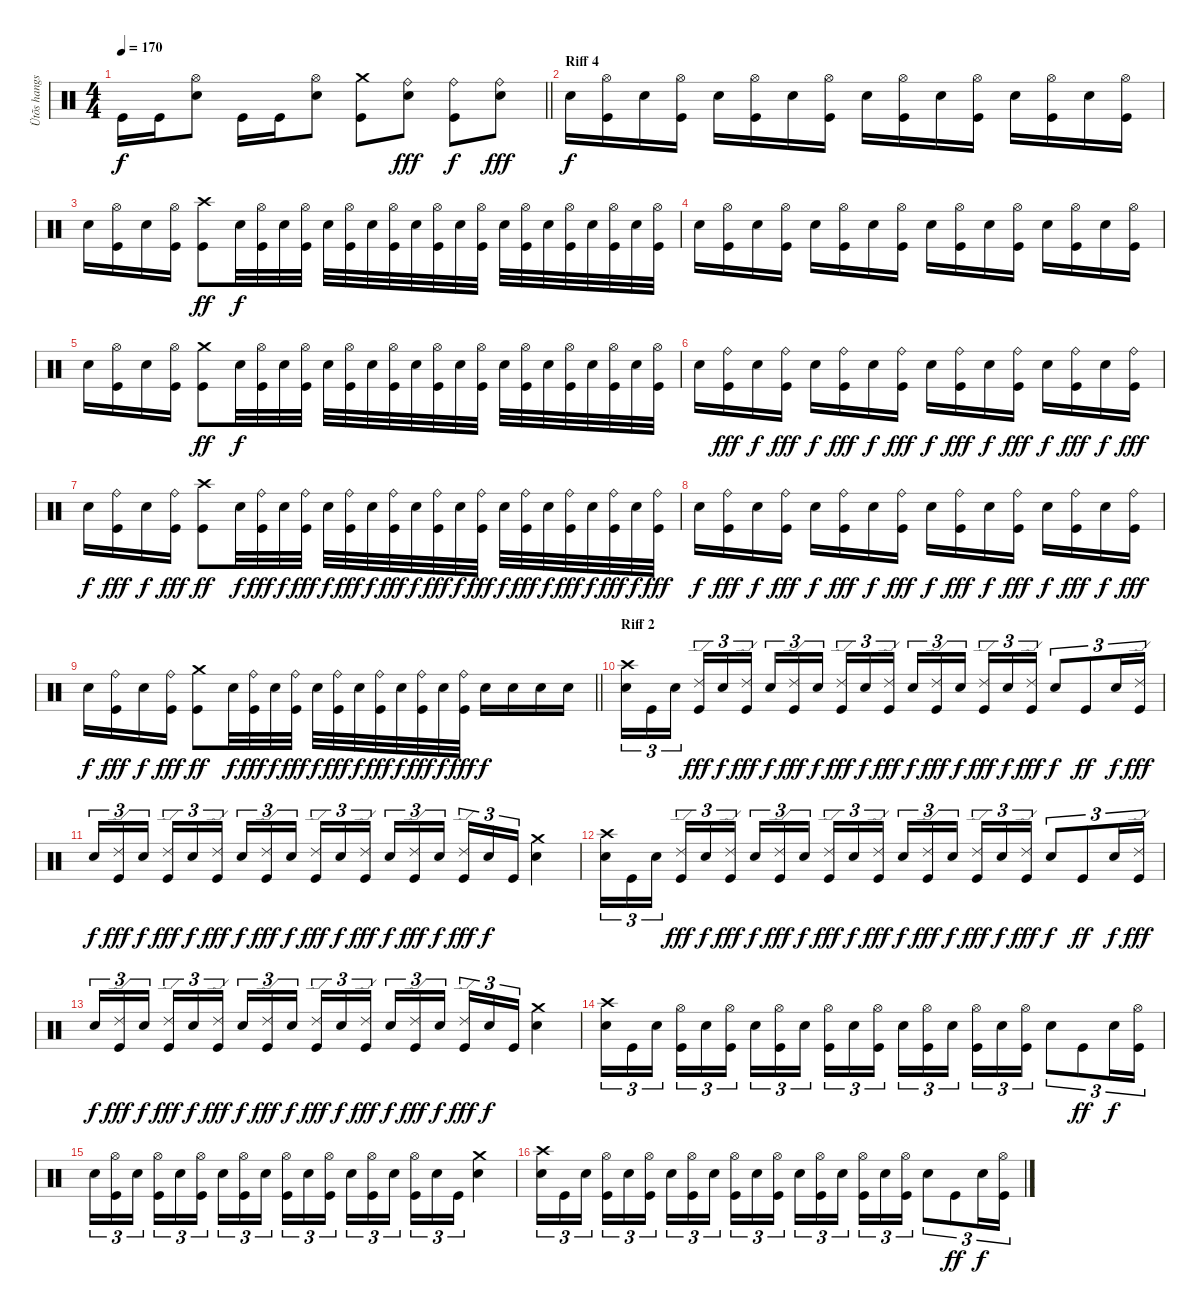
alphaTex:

\track ("Ütõs hangszer" "Ütõs hangs") {instrument percussion}
\staff {score}
\articulation defaults
\ts (4 4)
\tempo 170
\clef neutral
\barLineRight lightlight
\ks c "Kick (hit)".16{dy f} "Kick (hit)".16
("Hi-Hat (open)" "Electric Snare (hit)").8 "Kick (hit)".16 "Kick (hit)".16 ("Hi-Hat (open)" "Electric Snare (hit)").8 ("Crash medium (hit)" "Kick (hit)").8 ("Ride (bell)" "Electric Snare (hit)").8{dy fff} ("Ride (bell)" "Kick (hit)").8{dy f} ("Ride (bell)" "Electric Snare (hit)").8{dy fff} |
\section ("" "Riff 4")
"Electric Snare (hit)".16{dy f} ("Hi-Hat (open)" "Kick (hit)").16 "Electric Snare (hit)".16 ("Hi-Hat (open)" "Kick (hit)").16 "Electric Snare (hit)".16 ("Hi-Hat (open)" "Kick (hit)").16 "Electric Snare (hit)".16 ("Hi-Hat (open)" "Kick (hit)").16 "Electric Snare (hit)".16 ("Hi-Hat (open)" "Kick (hit)").16 "Electric Snare (hit)".16 ("Hi-Hat (open)" "Kick (hit)").16 "Electric Snare (hit)".16 ("Hi-Hat (open)" "Kick (hit)").16 "Electric Snare (hit)".16 ("Hi-Hat (open)" "Kick (hit)").16 |
"Electric Snare (hit)".16 ("Hi-Hat (open)" "Kick (hit)").16 "Electric Snare (hit)".16 ("Hi-Hat (open)" "Kick (hit)").16 ("Crash high (hit)" "Kick (hit)").8{dy ff} "Electric Snare (hit)".32{dy f} ("Hi-Hat (open)" "Kick (hit)").32 "Electric Snare (hit)".32 ("Hi-Hat (open)" "Kick (hit)").32 "Electric Snare (hit)".32 ("Hi-Hat (open)" "Kick (hit)").32 "Electric Snare (hit)".32 ("Hi-Hat (open)" "Kick (hit)").32 "Electric Snare (hit)".32 ("Hi-Hat (open)" "Kick (hit)").32 "Electric Snare (hit)".32 ("Hi-Hat (open)" "Kick (hit)").32 "Electric Snare (hit)".32 ("Hi-Hat (open)" "Kick (hit)").32 "Electric Snare (hit)".32 ("Hi-Hat (open)" "Kick (hit)").32 "Electric Snare (hit)".32 ("Hi-Hat (open)" "Kick (hit)").32 "Electric Snare (hit)".32 ("Hi-Hat (open)" "Kick (hit)").32 |
"Electric Snare (hit)".16 ("Hi-Hat (open)" "Kick (hit)").16 "Electric Snare (hit)".16 ("Hi-Hat (open)" "Kick (hit)").16 "Electric Snare (hit)".16 ("Hi-Hat (open)" "Kick (hit)").16 "Electric Snare (hit)".16 ("Hi-Hat (open)" "Kick (hit)").16 "Electric Snare (hit)".16 ("Hi-Hat (open)" "Kick (hit)").16 "Electric Snare (hit)".16 ("Hi-Hat (open)" "Kick (hit)").16 "Electric Snare (hit)".16 ("Hi-Hat (open)" "Kick (hit)").16 "Electric Snare (hit)".16 ("Hi-Hat (open)" "Kick (hit)").16 |
"Electric Snare (hit)".16 ("Hi-Hat (open)" "Kick (hit)").16 "Electric Snare (hit)".16 ("Hi-Hat (open)" "Kick (hit)").16 ("Crash medium (hit)" "Kick (hit)").8{dy ff} "Electric Snare (hit)".32{dy f} ("Hi-Hat (open)" "Kick (hit)").32 "Electric Snare (hit)".32 ("Hi-Hat (open)" "Kick (hit)").32 "Electric Snare (hit)".32 ("Hi-Hat (open)" "Kick (hit)").32 "Electric Snare (hit)".32 ("Hi-Hat (open)" "Kick (hit)").32 "Electric Snare (hit)".32 ("Hi-Hat (open)" "Kick (hit)").32 "Electric Snare (hit)".32 ("Hi-Hat (open)" "Kick (hit)").32 "Electric Snare (hit)".32 ("Hi-Hat (open)" "Kick (hit)").32 "Electric Snare (hit)".32 ("Hi-Hat (open)" "Kick (hit)").32 "Electric Snare (hit)".32 ("Hi-Hat (open)" "Kick (hit)").32 "Electric Snare (hit)".32 ("Hi-Hat (open)" "Kick (hit)").32 |
"Electric Snare (hit)".16 ("Ride (bell)" "Kick (hit)").16{dy fff} "Electric Snare (hit)".16{dy f} ("Ride (bell)" "Kick (hit)").16{dy fff} "Electric Snare (hit)".16{dy f} ("Ride (bell)" "Kick (hit)").16{dy fff} "Electric Snare (hit)".16{dy f} ("Ride (bell)" "Kick (hit)").16{dy fff} "Electric Snare (hit)".16{dy f} ("Ride (bell)" "Kick (hit)").16{dy fff} "Electric Snare (hit)".16{dy f} ("Ride (bell)" "Kick (hit)").16{dy fff} "Electric Snare (hit)".16{dy f} ("Ride (bell)" "Kick (hit)").16{dy fff} "Electric Snare (hit)".16{dy f} ("Ride (bell)" "Kick (hit)").16{dy fff} |
"Electric Snare (hit)".16{dy f} ("Ride (bell)" "Kick (hit)").16{dy fff} "Electric Snare (hit)".16{dy f} ("Ride (bell)" "Kick (hit)").16{dy fff} ("Crash high (hit)" "Kick (hit)").8{dy ff} "Electric Snare (hit)".32{dy f} ("Ride (bell)" "Kick (hit)").32{dy fff} "Electric Snare (hit)".32{dy f} ("Ride (bell)" "Kick (hit)").32{dy fff} "Electric Snare (hit)".32{dy f} ("Ride (bell)" "Kick (hit)").32{dy fff} "Electric Snare (hit)".32{dy f} ("Ride (bell)" "Kick (hit)").32{dy fff} "Electric Snare (hit)".32{dy f} ("Ride (bell)" "Kick (hit)").32{dy fff} "Electric Snare (hit)".32{dy f} ("Ride (bell)" "Kick (hit)").32{dy fff} "Electric Snare (hit)".32{dy f} ("Ride (bell)" "Kick (hit)").32{dy fff} "Electric Snare (hit)".32{dy f} ("Ride (bell)" "Kick (hit)").32{dy fff} "Electric Snare (hit)".32{dy f} ("Ride (bell)" "Kick (hit)").32{dy fff} "Electric Snare (hit)".32{dy f} ("Ride (bell)" "Kick (hit)").32{dy fff} |
"Electric Snare (hit)".16{dy f} ("Ride (bell)" "Kick (hit)").16{dy fff} "Electric Snare (hit)".16{dy f} ("Ride (bell)" "Kick (hit)").16{dy fff} "Electric Snare (hit)".16{dy f} ("Ride (bell)" "Kick (hit)").16{dy fff} "Electric Snare (hit)".16{dy f} ("Ride (bell)" "Kick (hit)").16{dy fff} "Electric Snare (hit)".16{dy f} ("Ride (bell)" "Kick (hit)").16{dy fff} "Electric Snare (hit)".16{dy f} ("Ride (bell)" "Kick (hit)").16{dy fff} "Electric Snare (hit)".16{dy f} ("Ride (bell)" "Kick (hit)").16{dy fff} "Electric Snare (hit)".16{dy f} ("Ride (bell)" "Kick (hit)").16{dy fff} |
\barLineRight lightlight "Electric Snare (hit)".16{dy f}
("Ride (bell)" "Kick (hit)").16{dy fff} "Electric Snare (hit)".16{dy f} ("Ride (bell)" "Kick (hit)").16{dy fff} ("Crash medium (hit)" "Kick (hit)").8{dy ff} "Electric Snare (hit)".32{dy f} ("Ride (bell)" "Kick (hit)").32{dy fff} "Electric Snare (hit)".32{dy f} ("Ride (bell)" "Kick (hit)").32{dy fff} "Electric Snare (hit)".32{dy f} ("Ride (bell)" "Kick (hit)").32{dy fff} "Electric Snare (hit)".32{dy f} ("Ride (bell)" "Kick (hit)").32{dy fff} "Electric Snare (hit)".32{dy f} ("Ride (bell)" "Kick (hit)").32{dy fff} "Electric Snare (hit)".32{dy f} ("Ride (bell)" "Kick (hit)").32{dy fff} "Electric Snare (hit)".16{dy f} "Electric Snare (hit)".16 "Electric Snare (hit)".16 "Electric Snare (hit)".16 |
\section ("" "Riff 2")
("Crash high (hit)" "Electric Snare (hit)").16{tu (3 2)} "Kick (hit)".16{tu (3 2)} "Electric Snare (hit)".16{tu (3 2) beam splitsecondary} ("Ride (edge) 2" "Kick (hit)").16{tu (3 2) dy fff} "Electric Snare (hit)".16{tu (3 2) dy f} ("Ride (edge) 2" "Kick (hit)").16{tu (3 2) dy fff} "Electric Snare (hit)".16{tu (3 2) dy f} ("Ride (edge) 2" "Kick (hit)").16{tu (3 2) dy fff} "Electric Snare (hit)".16{tu (3 2) dy f beam splitsecondary} ("Ride (edge) 2" "Kick (hit)").16{tu (3 2) dy fff} "Electric Snare (hit)".16{tu (3 2) dy f} ("Ride (edge) 2" "Kick (hit)").16{tu (3 2) dy fff} "Electric Snare (hit)".16{tu (3 2) dy f} ("Ride (edge) 2" "Kick (hit)").16{tu (3 2) dy fff} "Electric Snare (hit)".16{tu (3 2) dy f beam splitsecondary} ("Ride (edge) 2" "Kick (hit)").16{tu (3 2) dy fff} "Electric Snare (hit)".16{tu (3 2) dy f} ("Ride (edge) 2" "Kick (hit)").16{tu (3 2) dy fff} "Electric Snare (hit)".8{tu (3 2) dy f} "Kick (hit)".8{tu (3 2) dy ff} "Electric Snare (hit)".16{tu (3 2) dy f} ("Ride (edge) 2" "Kick (hit)").16{tu (3 2) dy fff} |
"Electric Snare (hit)".16{tu (3 2) dy f} ("Ride (edge) 2" "Kick (hit)").16{tu (3 2) dy fff} "Electric Snare (hit)".16{tu (3 2) dy f beam splitsecondary} ("Ride (edge) 2" "Kick (hit)").16{tu (3 2) dy fff} "Electric Snare (hit)".16{tu (3 2) dy f} ("Ride (edge) 2" "Kick (hit)").16{tu (3 2) dy fff} "Electric Snare (hit)".16{tu (3 2) dy f} ("Ride (edge) 2" "Kick (hit)").16{tu (3 2) dy fff} "Electric Snare (hit)".16{tu (3 2) dy f beam splitsecondary} ("Ride (edge) 2" "Kick (hit)").16{tu (3 2) dy fff} "Electric Snare (hit)".16{tu (3 2) dy f} ("Ride (edge) 2" "Kick (hit)").16{tu (3 2) dy fff} "Electric Snare (hit)".16{tu (3 2) dy f} ("Ride (edge) 2" "Kick (hit)").16{tu (3 2) dy fff} "Electric Snare (hit)".16{tu (3 2) dy f beam splitsecondary} ("Ride (edge) 2" "Kick (hit)").16{tu (3 2) dy fff} "Electric Snare (hit)".16{tu (3 2) dy f} "Kick (hit)".16{tu (3 2)} ("Crash medium (hit)" "Electric Snare (hit)").4 |
("Crash high (hit)" "Electric Snare (hit)").16{tu (3 2)} "Kick (hit)".16{tu (3 2)} "Electric Snare (hit)".16{tu (3 2) beam splitsecondary} ("Ride (edge) 2" "Kick (hit)").16{tu (3 2) dy fff} "Electric Snare (hit)".16{tu (3 2) dy f} ("Ride (edge) 2" "Kick (hit)").16{tu (3 2) dy fff} "Electric Snare (hit)".16{tu (3 2) dy f} ("Ride (edge) 2" "Kick (hit)").16{tu (3 2) dy fff} "Electric Snare (hit)".16{tu (3 2) dy f beam splitsecondary} ("Ride (edge) 2" "Kick (hit)").16{tu (3 2) dy fff} "Electric Snare (hit)".16{tu (3 2) dy f} ("Ride (edge) 2" "Kick (hit)").16{tu (3 2) dy fff} "Electric Snare (hit)".16{tu (3 2) dy f} ("Ride (edge) 2" "Kick (hit)").16{tu (3 2) dy fff} "Electric Snare (hit)".16{tu (3 2) dy f beam splitsecondary} ("Ride (edge) 2" "Kick (hit)").16{tu (3 2) dy fff} "Electric Snare (hit)".16{tu (3 2) dy f} ("Ride (edge) 2" "Kick (hit)").16{tu (3 2) dy fff} "Electric Snare (hit)".8{tu (3 2) dy f} "Kick (hit)".8{tu (3 2) dy ff} "Electric Snare (hit)".16{tu (3 2) dy f} ("Ride (edge) 2" "Kick (hit)").16{tu (3 2) dy fff} |
"Electric Snare (hit)".16{tu (3 2) dy f} ("Ride (edge) 2" "Kick (hit)").16{tu (3 2) dy fff} "Electric Snare (hit)".16{tu (3 2) dy f beam splitsecondary} ("Ride (edge) 2" "Kick (hit)").16{tu (3 2) dy fff} "Electric Snare (hit)".16{tu (3 2) dy f} ("Ride (edge) 2" "Kick (hit)").16{tu (3 2) dy fff} "Electric Snare (hit)".16{tu (3 2) dy f} ("Ride (edge) 2" "Kick (hit)").16{tu (3 2) dy fff} "Electric Snare (hit)".16{tu (3 2) dy f beam splitsecondary} ("Ride (edge) 2" "Kick (hit)").16{tu (3 2) dy fff} "Electric Snare (hit)".16{tu (3 2) dy f} ("Ride (edge) 2" "Kick (hit)").16{tu (3 2) dy fff} "Electric Snare (hit)".16{tu (3 2) dy f} ("Ride (edge) 2" "Kick (hit)").16{tu (3 2) dy fff} "Electric Snare (hit)".16{tu (3 2) dy f beam splitsecondary} ("Ride (edge) 2" "Kick (hit)").16{tu (3 2) dy fff} "Electric Snare (hit)".16{tu (3 2) dy f} "Kick (hit)".16{tu (3 2)} ("Crash medium (hit)" "Electric Snare (hit)").4 |
("Crash high (hit)" "Electric Snare (hit)").16{tu (3 2)} "Kick (hit)".16{tu (3 2)} "Electric Snare (hit)".16{tu (3 2) beam splitsecondary} ("Hi-Hat (open)" "Kick (hit)").16{tu (3 2)} "Electric Snare (hit)".16{tu (3 2)} ("Hi-Hat (open)" "Kick (hit)").16{tu (3 2)} "Electric Snare (hit)".16{tu (3 2)} ("Hi-Hat (open)" "Kick (hit)").16{tu (3 2)} "Electric Snare (hit)".16{tu (3 2) beam splitsecondary} ("Hi-Hat (open)" "Kick (hit)").16{tu (3 2)} "Electric Snare (hit)".16{tu (3 2)} ("Hi-Hat (open)" "Kick (hit)").16{tu (3 2)} "Electric Snare (hit)".16{tu (3 2)} ("Hi-Hat (open)" "Kick (hit)").16{tu (3 2)} "Electric Snare (hit)".16{tu (3 2) beam splitsecondary} ("Hi-Hat (open)" "Kick (hit)").16{tu (3 2)} "Electric Snare (hit)".16{tu (3 2)} ("Hi-Hat (open)" "Kick (hit)").16{tu (3 2)} "Electric Snare (hit)".8{tu (3 2)} "Kick (hit)".8{tu (3 2) dy ff} "Electric Snare (hit)".16{tu (3 2) dy f} ("Hi-Hat (open)" "Kick (hit)").16{tu (3 2)} |
"Electric Snare (hit)".16{tu (3 2)} ("Hi-Hat (open)" "Kick (hit)").16{tu (3 2)} "Electric Snare (hit)".16{tu (3 2) beam splitsecondary} ("Hi-Hat (open)" "Kick (hit)").16{tu (3 2)} "Electric Snare (hit)".16{tu (3 2)} ("Hi-Hat (open)" "Kick (hit)").16{tu (3 2)} "Electric Snare (hit)".16{tu (3 2)} ("Hi-Hat (open)" "Kick (hit)").16{tu (3 2)} "Electric Snare (hit)".16{tu (3 2) beam splitsecondary} ("Hi-Hat (open)" "Kick (hit)").16{tu (3 2)} "Electric Snare (hit)".16{tu (3 2)} ("Hi-Hat (open)" "Kick (hit)").16{tu (3 2)} "Electric Snare (hit)".16{tu (3 2)} ("Hi-Hat (open)" "Kick (hit)").16{tu (3 2)} "Electric Snare (hit)".16{tu (3 2) beam splitsecondary} ("Hi-Hat (open)" "Kick (hit)").16{tu (3 2)} "Electric Snare (hit)".16{tu (3 2)} "Kick (hit)".16{tu (3 2)} ("Crash medium (hit)" "Electric Snare (hit)").4 |
("Crash high (hit)" "Electric Snare (hit)").16{tu (3 2)} "Kick (hit)".16{tu (3 2)} "Electric Snare (hit)".16{tu (3 2) beam splitsecondary} ("Hi-Hat (open)" "Kick (hit)").16{tu (3 2)} "Electric Snare (hit)".16{tu (3 2)} ("Hi-Hat (open)" "Kick (hit)").16{tu (3 2)} "Electric Snare (hit)".16{tu (3 2)} ("Hi-Hat (open)" "Kick (hit)").16{tu (3 2)} "Electric Snare (hit)".16{tu (3 2) beam splitsecondary} ("Hi-Hat (open)" "Kick (hit)").16{tu (3 2)} "Electric Snare (hit)".16{tu (3 2)} ("Hi-Hat (open)" "Kick (hit)").16{tu (3 2)} "Electric Snare (hit)".16{tu (3 2)} ("Hi-Hat (open)" "Kick (hit)").16{tu (3 2)} "Electric Snare (hit)".16{tu (3 2) beam splitsecondary} ("Hi-Hat (open)" "Kick (hit)").16{tu (3 2)} "Electric Snare (hit)".16{tu (3 2)} ("Hi-Hat (open)" "Kick (hit)").16{tu (3 2)} "Electric Snare (hit)".8{tu (3 2)} "Kick (hit)".8{tu (3 2) dy ff} "Electric Snare (hit)".16{tu (3 2) dy f} ("Hi-Hat (open)" "Kick (hit)").16{tu (3 2)}
